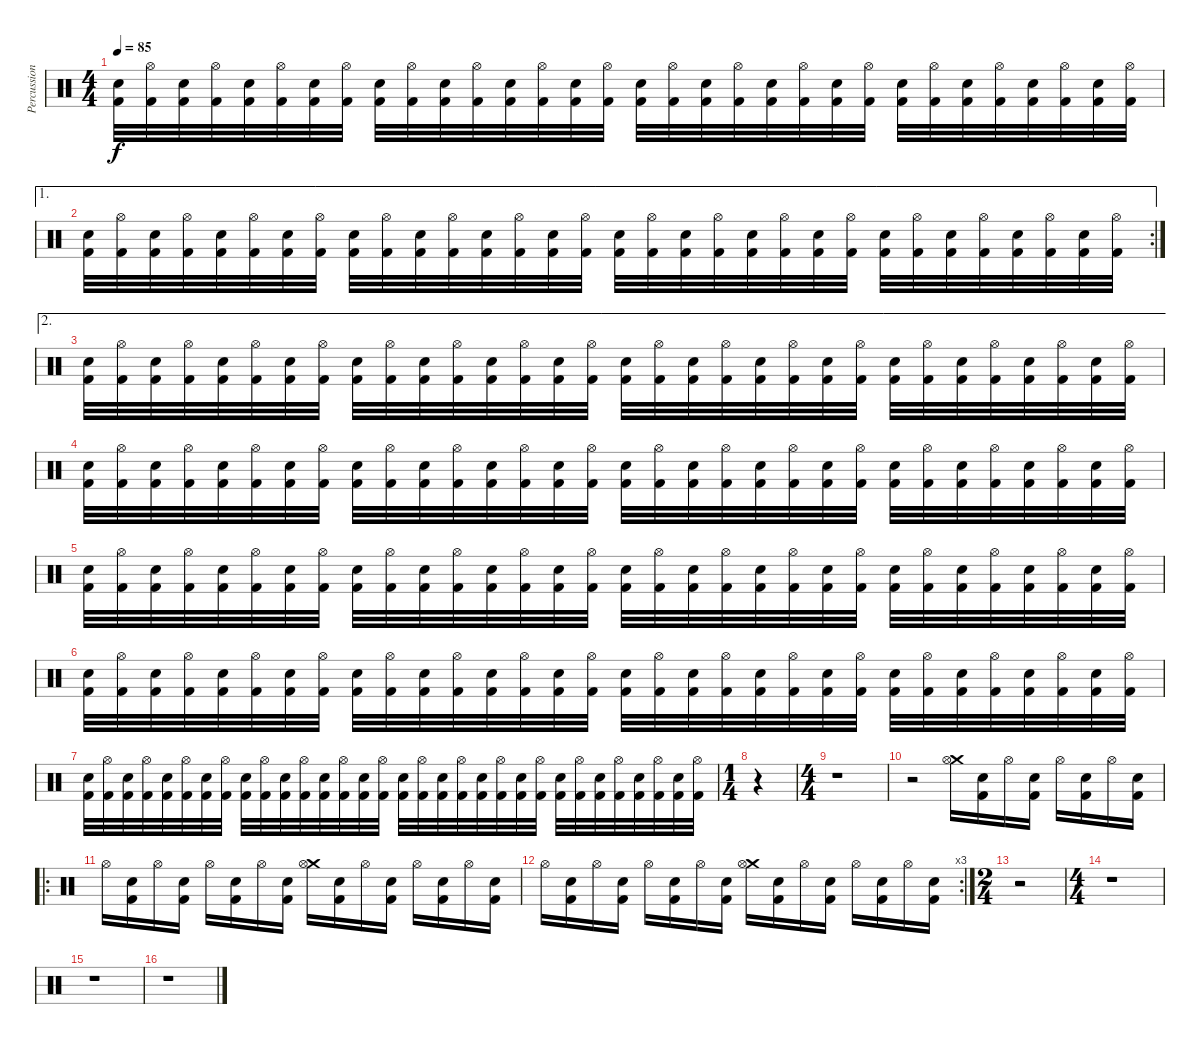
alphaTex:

\track ("Percussion" "Percussion") {instrument percussion}
\staff {score}
\articulation defaults
\ts (4 4)
\tempo 85
\clef neutral
\ks c
("Electric Snare (hit)" "Kick (hit) 2").32{dy f} ("Hi-Hat (open)" "Kick (hit) 2").32 ("Electric Snare (hit)" "Kick (hit) 2").32 ("Hi-Hat (open)" "Kick (hit) 2").32 ("Electric Snare (hit)" "Kick (hit) 2").32 ("Hi-Hat (open)" "Kick (hit) 2").32 ("Electric Snare (hit)" "Kick (hit) 2").32 ("Hi-Hat (open)" "Kick (hit) 2").32 ("Electric Snare (hit)" "Kick (hit) 2").32 ("Hi-Hat (open)" "Kick (hit) 2").32 ("Electric Snare (hit)" "Kick (hit) 2").32 ("Hi-Hat (open)" "Kick (hit) 2").32 ("Electric Snare (hit)" "Kick (hit) 2").32 ("Hi-Hat (open)" "Kick (hit) 2").32 ("Electric Snare (hit)" "Kick (hit) 2").32 ("Hi-Hat (open)" "Kick (hit) 2").32 ("Electric Snare (hit)" "Kick (hit) 2").32 ("Hi-Hat (open)" "Kick (hit) 2").32 ("Electric Snare (hit)" "Kick (hit) 2").32 ("Hi-Hat (open)" "Kick (hit) 2").32 ("Electric Snare (hit)" "Kick (hit) 2").32 ("Hi-Hat (open)" "Kick (hit) 2").32 ("Electric Snare (hit)" "Kick (hit) 2").32 ("Hi-Hat (open)" "Kick (hit) 2").32 ("Electric Snare (hit)" "Kick (hit) 2").32 ("Hi-Hat (open)" "Kick (hit) 2").32 ("Electric Snare (hit)" "Kick (hit) 2").32 ("Hi-Hat (open)" "Kick (hit) 2").32 ("Electric Snare (hit)" "Kick (hit) 2").32 ("Hi-Hat (open)" "Kick (hit) 2").32 ("Electric Snare (hit)" "Kick (hit) 2").32 ("Hi-Hat (open)" "Kick (hit) 2").32 |
\ae 1
\rc 2
("Electric Snare (hit)" "Kick (hit) 2").32 ("Hi-Hat (open)" "Kick (hit) 2").32 ("Electric Snare (hit)" "Kick (hit) 2").32 ("Hi-Hat (open)" "Kick (hit) 2").32 ("Electric Snare (hit)" "Kick (hit) 2").32 ("Hi-Hat (open)" "Kick (hit) 2").32 ("Electric Snare (hit)" "Kick (hit) 2").32 ("Hi-Hat (open)" "Kick (hit) 2").32 ("Electric Snare (hit)" "Kick (hit) 2").32 ("Hi-Hat (open)" "Kick (hit) 2").32 ("Electric Snare (hit)" "Kick (hit) 2").32 ("Hi-Hat (open)" "Kick (hit) 2").32 ("Electric Snare (hit)" "Kick (hit) 2").32 ("Hi-Hat (open)" "Kick (hit) 2").32 ("Electric Snare (hit)" "Kick (hit) 2").32 ("Hi-Hat (open)" "Kick (hit) 2").32 ("Electric Snare (hit)" "Kick (hit) 2").32 ("Hi-Hat (open)" "Kick (hit) 2").32 ("Electric Snare (hit)" "Kick (hit) 2").32 ("Hi-Hat (open)" "Kick (hit) 2").32 ("Electric Snare (hit)" "Kick (hit) 2").32 ("Hi-Hat (open)" "Kick (hit) 2").32 ("Electric Snare (hit)" "Kick (hit) 2").32 ("Hi-Hat (open)" "Kick (hit) 2").32 ("Electric Snare (hit)" "Kick (hit) 2").32 ("Hi-Hat (open)" "Kick (hit) 2").32 ("Electric Snare (hit)" "Kick (hit) 2").32 ("Hi-Hat (open)" "Kick (hit) 2").32 ("Electric Snare (hit)" "Kick (hit) 2").32 ("Hi-Hat (open)" "Kick (hit) 2").32 ("Electric Snare (hit)" "Kick (hit) 2").32 ("Hi-Hat (open)" "Kick (hit) 2").32 |
\ae 2
("Electric Snare (hit)" "Kick (hit) 2").32 ("Hi-Hat (open)" "Kick (hit) 2").32 ("Electric Snare (hit)" "Kick (hit) 2").32 ("Hi-Hat (open)" "Kick (hit) 2").32 ("Electric Snare (hit)" "Kick (hit) 2").32 ("Hi-Hat (open)" "Kick (hit) 2").32 ("Electric Snare (hit)" "Kick (hit) 2").32 ("Hi-Hat (open)" "Kick (hit) 2").32 ("Electric Snare (hit)" "Kick (hit) 2").32 ("Hi-Hat (open)" "Kick (hit) 2").32 ("Electric Snare (hit)" "Kick (hit) 2").32 ("Hi-Hat (open)" "Kick (hit) 2").32 ("Electric Snare (hit)" "Kick (hit) 2").32 ("Hi-Hat (open)" "Kick (hit) 2").32 ("Electric Snare (hit)" "Kick (hit) 2").32 ("Hi-Hat (open)" "Kick (hit) 2").32 ("Electric Snare (hit)" "Kick (hit) 2").32 ("Hi-Hat (open)" "Kick (hit) 2").32 ("Electric Snare (hit)" "Kick (hit) 2").32 ("Hi-Hat (open)" "Kick (hit) 2").32 ("Electric Snare (hit)" "Kick (hit) 2").32 ("Hi-Hat (open)" "Kick (hit) 2").32 ("Electric Snare (hit)" "Kick (hit) 2").32 ("Hi-Hat (open)" "Kick (hit) 2").32 ("Electric Snare (hit)" "Kick (hit) 2").32 ("Hi-Hat (open)" "Kick (hit) 2").32 ("Electric Snare (hit)" "Kick (hit) 2").32 ("Hi-Hat (open)" "Kick (hit) 2").32 ("Electric Snare (hit)" "Kick (hit) 2").32 ("Hi-Hat (open)" "Kick (hit) 2").32 ("Electric Snare (hit)" "Kick (hit) 2").32 ("Hi-Hat (open)" "Kick (hit) 2").32 |
("Electric Snare (hit)" "Kick (hit) 2").32 ("Hi-Hat (open)" "Kick (hit) 2").32 ("Electric Snare (hit)" "Kick (hit) 2").32 ("Hi-Hat (open)" "Kick (hit) 2").32 ("Electric Snare (hit)" "Kick (hit) 2").32 ("Hi-Hat (open)" "Kick (hit) 2").32 ("Electric Snare (hit)" "Kick (hit) 2").32 ("Hi-Hat (open)" "Kick (hit) 2").32 ("Electric Snare (hit)" "Kick (hit) 2").32 ("Hi-Hat (open)" "Kick (hit) 2").32 ("Electric Snare (hit)" "Kick (hit) 2").32 ("Hi-Hat (open)" "Kick (hit) 2").32 ("Electric Snare (hit)" "Kick (hit) 2").32 ("Hi-Hat (open)" "Kick (hit) 2").32 ("Electric Snare (hit)" "Kick (hit) 2").32 ("Hi-Hat (open)" "Kick (hit) 2").32 ("Electric Snare (hit)" "Kick (hit) 2").32 ("Hi-Hat (open)" "Kick (hit) 2").32 ("Electric Snare (hit)" "Kick (hit) 2").32 ("Hi-Hat (open)" "Kick (hit) 2").32 ("Electric Snare (hit)" "Kick (hit) 2").32 ("Hi-Hat (open)" "Kick (hit) 2").32 ("Electric Snare (hit)" "Kick (hit) 2").32 ("Hi-Hat (open)" "Kick (hit) 2").32 ("Electric Snare (hit)" "Kick (hit) 2").32 ("Hi-Hat (open)" "Kick (hit) 2").32 ("Electric Snare (hit)" "Kick (hit) 2").32 ("Hi-Hat (open)" "Kick (hit) 2").32 ("Electric Snare (hit)" "Kick (hit) 2").32 ("Hi-Hat (open)" "Kick (hit) 2").32 ("Electric Snare (hit)" "Kick (hit) 2").32 ("Hi-Hat (open)" "Kick (hit) 2").32 |
("Electric Snare (hit)" "Kick (hit) 2").32 ("Hi-Hat (open)" "Kick (hit) 2").32 ("Electric Snare (hit)" "Kick (hit) 2").32 ("Hi-Hat (open)" "Kick (hit) 2").32 ("Electric Snare (hit)" "Kick (hit) 2").32 ("Hi-Hat (open)" "Kick (hit) 2").32 ("Electric Snare (hit)" "Kick (hit) 2").32 ("Hi-Hat (open)" "Kick (hit) 2").32 ("Electric Snare (hit)" "Kick (hit) 2").32 ("Hi-Hat (open)" "Kick (hit) 2").32 ("Electric Snare (hit)" "Kick (hit) 2").32 ("Hi-Hat (open)" "Kick (hit) 2").32 ("Electric Snare (hit)" "Kick (hit) 2").32 ("Hi-Hat (open)" "Kick (hit) 2").32 ("Electric Snare (hit)" "Kick (hit) 2").32 ("Hi-Hat (open)" "Kick (hit) 2").32 ("Electric Snare (hit)" "Kick (hit) 2").32 ("Hi-Hat (open)" "Kick (hit) 2").32 ("Electric Snare (hit)" "Kick (hit) 2").32 ("Hi-Hat (open)" "Kick (hit) 2").32 ("Electric Snare (hit)" "Kick (hit) 2").32 ("Hi-Hat (open)" "Kick (hit) 2").32 ("Electric Snare (hit)" "Kick (hit) 2").32 ("Hi-Hat (open)" "Kick (hit) 2").32 ("Electric Snare (hit)" "Kick (hit) 2").32 ("Hi-Hat (open)" "Kick (hit) 2").32 ("Electric Snare (hit)" "Kick (hit) 2").32 ("Hi-Hat (open)" "Kick (hit) 2").32 ("Electric Snare (hit)" "Kick (hit) 2").32 ("Hi-Hat (open)" "Kick (hit) 2").32 ("Electric Snare (hit)" "Kick (hit) 2").32 ("Hi-Hat (open)" "Kick (hit) 2").32 |
("Electric Snare (hit)" "Kick (hit) 2").32 ("Hi-Hat (open)" "Kick (hit) 2").32 ("Electric Snare (hit)" "Kick (hit) 2").32 ("Hi-Hat (open)" "Kick (hit) 2").32 ("Electric Snare (hit)" "Kick (hit) 2").32 ("Hi-Hat (open)" "Kick (hit) 2").32 ("Electric Snare (hit)" "Kick (hit) 2").32 ("Hi-Hat (open)" "Kick (hit) 2").32 ("Electric Snare (hit)" "Kick (hit) 2").32 ("Hi-Hat (open)" "Kick (hit) 2").32 ("Electric Snare (hit)" "Kick (hit) 2").32 ("Hi-Hat (open)" "Kick (hit) 2").32 ("Electric Snare (hit)" "Kick (hit) 2").32 ("Hi-Hat (open)" "Kick (hit) 2").32 ("Electric Snare (hit)" "Kick (hit) 2").32 ("Hi-Hat (open)" "Kick (hit) 2").32 ("Electric Snare (hit)" "Kick (hit) 2").32 ("Hi-Hat (open)" "Kick (hit) 2").32 ("Electric Snare (hit)" "Kick (hit) 2").32 ("Hi-Hat (open)" "Kick (hit) 2").32 ("Electric Snare (hit)" "Kick (hit) 2").32 ("Hi-Hat (open)" "Kick (hit) 2").32 ("Electric Snare (hit)" "Kick (hit) 2").32 ("Hi-Hat (open)" "Kick (hit) 2").32 ("Electric Snare (hit)" "Kick (hit) 2").32 ("Hi-Hat (open)" "Kick (hit) 2").32 ("Electric Snare (hit)" "Kick (hit) 2").32 ("Hi-Hat (open)" "Kick (hit) 2").32 ("Electric Snare (hit)" "Kick (hit) 2").32 ("Hi-Hat (open)" "Kick (hit) 2").32 ("Electric Snare (hit)" "Kick (hit) 2").32 ("Hi-Hat (open)" "Kick (hit) 2").32 |
("Electric Snare (hit)" "Kick (hit) 2").32 ("Hi-Hat (open)" "Kick (hit) 2").32 ("Electric Snare (hit)" "Kick (hit) 2").32 ("Hi-Hat (open)" "Kick (hit) 2").32 ("Electric Snare (hit)" "Kick (hit) 2").32 ("Hi-Hat (open)" "Kick (hit) 2").32 ("Electric Snare (hit)" "Kick (hit) 2").32 ("Hi-Hat (open)" "Kick (hit) 2").32 ("Electric Snare (hit)" "Kick (hit) 2").32 ("Hi-Hat (open)" "Kick (hit) 2").32 ("Electric Snare (hit)" "Kick (hit) 2").32 ("Hi-Hat (open)" "Kick (hit) 2").32 ("Electric Snare (hit)" "Kick (hit) 2").32 ("Hi-Hat (open)" "Kick (hit) 2").32 ("Electric Snare (hit)" "Kick (hit) 2").32 ("Hi-Hat (open)" "Kick (hit) 2").32 ("Electric Snare (hit)" "Kick (hit) 2").32 ("Hi-Hat (open)" "Kick (hit) 2").32 ("Electric Snare (hit)" "Kick (hit) 2").32 ("Hi-Hat (open)" "Kick (hit) 2").32 ("Electric Snare (hit)" "Kick (hit) 2").32 ("Hi-Hat (open)" "Kick (hit) 2").32 ("Electric Snare (hit)" "Kick (hit) 2").32 ("Hi-Hat (open)" "Kick (hit) 2").32 ("Electric Snare (hit)" "Kick (hit) 2").32 ("Hi-Hat (open)" "Kick (hit) 2").32 ("Electric Snare (hit)" "Kick (hit) 2").32 ("Hi-Hat (open)" "Kick (hit) 2").32 ("Electric Snare (hit)" "Kick (hit) 2").32 ("Hi-Hat (open)" "Kick (hit) 2").32 ("Electric Snare (hit)" "Kick (hit) 2").32 ("Hi-Hat (open)" "Kick (hit) 2").32 |
\ts (1 4)
r.4 |
\ts (4 4)
r.1 |
r.2 ("Crash medium (hit)" "Hi-Hat (open)").16 ("Electric Snare (hit)" "Kick (hit) 2").16 "Hi-Hat (open)".16 ("Electric Snare (hit)" "Kick (hit) 2").16 "Hi-Hat (open)".16 ("Electric Snare (hit)" "Kick (hit) 2").16 "Hi-Hat (open)".16 ("Electric Snare (hit)" "Kick (hit) 2").16 |
\ro "Hi-Hat (open)".16
("Electric Snare (hit)" "Kick (hit) 2").16 "Hi-Hat (open)".16 ("Electric Snare (hit)" "Kick (hit) 2").16 "Hi-Hat (open)".16 ("Electric Snare (hit)" "Kick (hit) 2").16 "Hi-Hat (open)".16 ("Electric Snare (hit)" "Kick (hit) 2").16 ("Crash medium (hit)" "Hi-Hat (open)").16 ("Electric Snare (hit)" "Kick (hit) 2").16 "Hi-Hat (open)".16 ("Electric Snare (hit)" "Kick (hit) 2").16 "Hi-Hat (open)".16 ("Electric Snare (hit)" "Kick (hit) 2").16 "Hi-Hat (open)".16 ("Electric Snare (hit)" "Kick (hit) 2").16 |
\rc 3 "Hi-Hat (open)".16
("Electric Snare (hit)" "Kick (hit) 2").16 "Hi-Hat (open)".16 ("Electric Snare (hit)" "Kick (hit) 2").16 "Hi-Hat (open)".16 ("Electric Snare (hit)" "Kick (hit) 2").16 "Hi-Hat (open)".16 ("Electric Snare (hit)" "Kick (hit) 2").16 ("Crash medium (hit)" "Hi-Hat (open)").16 ("Electric Snare (hit)" "Kick (hit) 2").16 "Hi-Hat (open)".16 ("Electric Snare (hit)" "Kick (hit) 2").16 "Hi-Hat (open)".16 ("Electric Snare (hit)" "Kick (hit) 2").16 "Hi-Hat (open)".16 ("Electric Snare (hit)" "Kick (hit) 2").16 |
\ts (2 4)
r.2 |
\ts (4 4)
r.1 |
r.1 |
r.1
